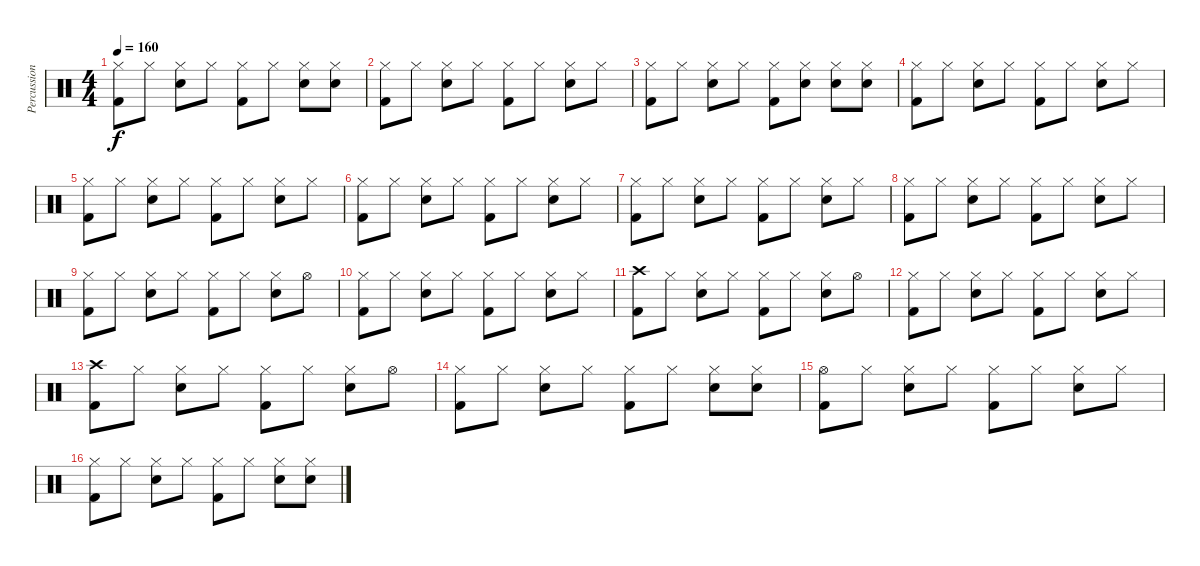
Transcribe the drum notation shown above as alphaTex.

\track ("Percussions" "Percussion") {instrument percussion}
\staff {score}
\articulation defaults
\ts (4 4)
\tempo 160
\clef neutral
\ks c
("Hi-Hat (closed)" "Kick (hit) 2").8{dy f} "Hi-Hat (closed)".8 ("Hi-Hat (closed)" "Snare (hit) 2").8 "Hi-Hat (closed)".8 ("Hi-Hat (closed)" "Kick (hit) 2").8 "Hi-Hat (closed)".8 ("Snare (hit) 2" "Hi-Hat (closed)").8 ("Hi-Hat (closed)" "Snare (hit) 2").8 |
("Hi-Hat (closed)" "Kick (hit) 2").8 "Hi-Hat (closed)".8 ("Hi-Hat (closed)" "Snare (hit) 2").8 "Hi-Hat (closed)".8 ("Hi-Hat (closed)" "Kick (hit) 2").8 "Hi-Hat (closed)".8 ("Hi-Hat (closed)" "Snare (hit) 2").8 "Hi-Hat (closed)".8 |
("Hi-Hat (closed)" "Kick (hit) 2").8 "Hi-Hat (closed)".8 ("Hi-Hat (closed)" "Snare (hit) 2").8 "Hi-Hat (closed)".8 ("Hi-Hat (closed)" "Kick (hit) 2").8 ("Hi-Hat (closed)" "Snare (hit) 2").8 ("Snare (hit) 2" "Hi-Hat (closed)").8 ("Snare (hit) 2" "Hi-Hat (closed)").8 |
("Kick (hit) 2" "Hi-Hat (closed)").8 "Hi-Hat (closed)".8 ("Snare (hit) 2" "Hi-Hat (closed)").8 "Hi-Hat (closed)".8 ("Kick (hit) 2" "Hi-Hat (closed)").8 "Hi-Hat (closed)".8 ("Snare (hit) 2" "Hi-Hat (closed)").8 "Hi-Hat (closed)".8 |
("Hi-Hat (closed)" "Kick (hit) 2").8 "Hi-Hat (closed)".8 ("Hi-Hat (closed)" "Snare (hit) 2").8 "Hi-Hat (closed)".8 ("Hi-Hat (closed)" "Kick (hit) 2").8 "Hi-Hat (closed)".8 ("Hi-Hat (closed)" "Snare (hit) 2").8 "Hi-Hat (closed)".8 |
("Hi-Hat (closed)" "Kick (hit) 2").8 "Hi-Hat (closed)".8 ("Hi-Hat (closed)" "Snare (hit) 2").8 "Hi-Hat (closed)".8 ("Hi-Hat (closed)" "Kick (hit) 2").8 "Hi-Hat (closed)".8 ("Hi-Hat (closed)" "Snare (hit) 2").8 "Hi-Hat (closed)".8 |
("Hi-Hat (closed)" "Kick (hit) 2").8 "Hi-Hat (closed)".8 ("Hi-Hat (closed)" "Snare (hit) 2").8 "Hi-Hat (closed)".8 ("Hi-Hat (closed)" "Kick (hit) 2").8 "Hi-Hat (closed)".8 ("Snare (hit) 2" "Hi-Hat (closed)").8 "Hi-Hat (closed)".8 |
("Kick (hit) 2" "Hi-Hat (closed)").8 "Hi-Hat (closed)".8 ("Snare (hit) 2" "Hi-Hat (closed)").8 "Hi-Hat (closed)".8 ("Kick (hit) 2" "Hi-Hat (closed)").8 "Hi-Hat (closed)".8 ("Snare (hit) 2" "Hi-Hat (closed)").8 "Hi-Hat (closed)".8 |
("Kick (hit) 2" "Hi-Hat (closed)").8 "Hi-Hat (closed)".8 ("Snare (hit) 2" "Hi-Hat (closed)").8 "Hi-Hat (closed)".8 ("Kick (hit) 2" "Hi-Hat (closed)").8 "Hi-Hat (closed)".8 ("Snare (hit) 2" "Hi-Hat (closed)").8 "Hi-Hat (open)".8 |
("Kick (hit) 2" "Hi-Hat (closed)").8 "Hi-Hat (closed)".8 ("Snare (hit) 2" "Hi-Hat (closed)").8 "Hi-Hat (closed)".8 ("Kick (hit) 2" "Hi-Hat (closed)").8 "Hi-Hat (closed)".8 ("Snare (hit) 2" "Hi-Hat (closed)").8 "Hi-Hat (closed)".8 |
("Crash high (hit)" "Kick (hit) 2").8 "Hi-Hat (closed)".8 ("Snare (hit) 2" "Hi-Hat (closed)").8 "Hi-Hat (closed)".8 ("Kick (hit) 2" "Hi-Hat (closed)").8 "Hi-Hat (closed)".8 ("Snare (hit) 2" "Hi-Hat (closed)").8 "Hi-Hat (open)".8 |
("Kick (hit) 2" "Hi-Hat (closed)").8 "Hi-Hat (closed)".8 ("Snare (hit) 2" "Hi-Hat (closed)").8 "Hi-Hat (closed)".8 ("Kick (hit) 2" "Hi-Hat (closed)").8 "Hi-Hat (closed)".8 ("Snare (hit) 2" "Hi-Hat (closed)").8 "Hi-Hat (closed)".8 |
("Crash high (hit)" "Kick (hit) 2").8 "Hi-Hat (closed)".8 ("Snare (hit) 2" "Hi-Hat (closed)").8 "Hi-Hat (closed)".8 ("Kick (hit) 2" "Hi-Hat (closed)").8 "Hi-Hat (closed)".8 ("Snare (hit) 2" "Hi-Hat (closed)").8 "Hi-Hat (open)".8 |
("Kick (hit) 2" "Hi-Hat (closed)").8 "Hi-Hat (closed)".8 ("Snare (hit) 2" "Hi-Hat (closed)").8 "Hi-Hat (closed)".8 ("Kick (hit) 2" "Hi-Hat (closed)").8 "Hi-Hat (closed)".8 ("Snare (hit) 2" "Hi-Hat (closed)").8 ("Snare (hit) 2" "Hi-Hat (closed)").8 |
("Kick (hit) 2" "Hi-Hat (open)").8 "Hi-Hat (closed)".8 ("Snare (hit) 2" "Hi-Hat (closed)").8 "Hi-Hat (closed)".8 ("Kick (hit) 2" "Hi-Hat (closed)").8 "Hi-Hat (closed)".8 ("Snare (hit) 2" "Hi-Hat (closed)").8 "Hi-Hat (closed)".8 |
("Kick (hit) 2" "Hi-Hat (closed)").8 "Hi-Hat (closed)".8 ("Snare (hit) 2" "Hi-Hat (closed)").8 "Hi-Hat (closed)".8 ("Kick (hit) 2" "Hi-Hat (closed)").8 "Hi-Hat (closed)".8 ("Snare (hit) 2" "Hi-Hat (closed)").8 ("Snare (hit) 2" "Hi-Hat (closed)").8
